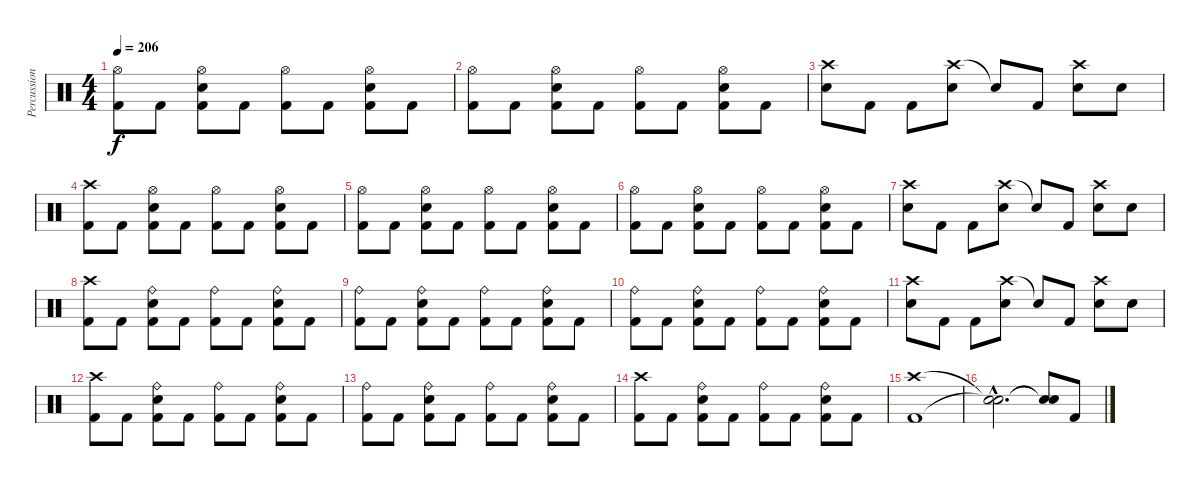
\track ("Percussion" "Percussion") {instrument percussion}
\staff {score}
\articulation defaults
\ts (4 4)
\tempo 206
\clef neutral
\ks c
("Hi-Hat (open)" "Kick (hit) 2").8{dy f} "Kick (hit) 2".8 ("Hi-Hat (open)" "Snare (hit) 2" "Kick (hit) 2").8 "Kick (hit) 2".8 ("Hi-Hat (open)" "Kick (hit) 2").8 "Kick (hit) 2".8 ("Hi-Hat (open)" "Snare (hit) 2" "Kick (hit) 2").8 "Kick (hit) 2".8 |
("Hi-Hat (open)" "Kick (hit) 2").8 "Kick (hit) 2".8 ("Hi-Hat (open)" "Snare (hit) 2" "Kick (hit) 2").8 "Kick (hit) 2".8 ("Hi-Hat (open)" "Kick (hit) 2").8 "Kick (hit) 2".8 ("Hi-Hat (open)" "Snare (hit) 2" "Kick (hit) 2").8 "Kick (hit) 2".8 |
("Crash high (hit)" "Snare (hit) 2").8 "Kick (hit) 2".8 "Kick (hit) 2".8 ("Crash high (hit)" "Snare (hit) 2").8 "Snare (hit)"{t}.8 "Kick (hit) 2".8 ("Crash high (hit)" "Snare (hit) 2").8 "Snare (hit) 2".8 |
("Crash high (hit)" "Kick (hit) 2").8 "Kick (hit) 2".8 ("Hi-Hat (open)" "Snare (hit) 2" "Kick (hit) 2").8 "Kick (hit) 2".8 ("Hi-Hat (open)" "Kick (hit) 2").8 "Kick (hit) 2".8 ("Hi-Hat (open)" "Snare (hit) 2" "Kick (hit) 2").8 "Kick (hit) 2".8 |
("Hi-Hat (open)" "Kick (hit) 2").8 "Kick (hit) 2".8 ("Hi-Hat (open)" "Snare (hit) 2" "Kick (hit) 2").8 "Kick (hit) 2".8 ("Hi-Hat (open)" "Kick (hit) 2").8 "Kick (hit) 2".8 ("Hi-Hat (open)" "Snare (hit) 2" "Kick (hit) 2").8 "Kick (hit) 2".8 |
("Hi-Hat (open)" "Kick (hit) 2").8 "Kick (hit) 2".8 ("Hi-Hat (open)" "Snare (hit) 2" "Kick (hit) 2").8 "Kick (hit) 2".8 ("Hi-Hat (open)" "Kick (hit) 2").8 "Kick (hit) 2".8 ("Hi-Hat (open)" "Snare (hit) 2" "Kick (hit) 2").8 "Kick (hit) 2".8 |
("Crash high (hit)" "Snare (hit) 2").8 "Kick (hit) 2".8 "Kick (hit) 2".8 ("Crash high (hit)" "Snare (hit) 2").8 "Snare (hit)"{t}.8 "Kick (hit) 2".8 ("Crash high (hit)" "Snare (hit) 2").8 "Snare (hit) 2".8 |
("Crash high (hit)" "Kick (hit) 2").8 "Kick (hit) 2".8 ("Ride (bell)" "Snare (hit) 2" "Kick (hit) 2").8 "Kick (hit) 2".8 ("Ride (bell)" "Kick (hit) 2").8 "Kick (hit) 2".8 ("Ride (bell)" "Snare (hit) 2" "Kick (hit) 2").8 "Kick (hit) 2".8 |
("Ride (bell)" "Kick (hit) 2").8 "Kick (hit) 2".8 ("Ride (bell)" "Snare (hit) 2" "Kick (hit) 2").8 "Kick (hit) 2".8 ("Ride (bell)" "Kick (hit) 2").8 "Kick (hit) 2".8 ("Ride (bell)" "Snare (hit) 2" "Kick (hit) 2").8 "Kick (hit) 2".8 |
("Ride (bell)" "Kick (hit) 2").8 "Kick (hit) 2".8 ("Ride (bell)" "Snare (hit) 2" "Kick (hit) 2").8 "Kick (hit) 2".8 ("Ride (bell)" "Kick (hit) 2").8 "Kick (hit) 2".8 ("Ride (bell)" "Snare (hit) 2" "Kick (hit) 2").8 "Kick (hit) 2".8 |
("Crash high (hit)" "Snare (hit) 2").8 "Kick (hit) 2".8 "Kick (hit) 2".8 ("Crash high (hit)" "Snare (hit) 2").8 "Snare (hit)"{t}.8 "Kick (hit) 2".8 ("Crash high (hit)" "Snare (hit) 2").8 "Snare (hit) 2".8 |
("Crash high (hit)" "Kick (hit) 2").8 "Kick (hit) 2".8 ("Ride (bell)" "Snare (hit) 2" "Kick (hit) 2").8 "Kick (hit) 2".8 ("Ride (bell)" "Kick (hit) 2").8 "Kick (hit) 2".8 ("Ride (bell)" "Snare (hit) 2" "Kick (hit) 2").8 "Kick (hit) 2".8 |
("Ride (bell)" "Kick (hit) 2").8 "Kick (hit) 2".8 ("Ride (bell)" "Snare (hit) 2" "Kick (hit) 2").8 "Kick (hit) 2".8 ("Ride (bell)" "Kick (hit) 2").8 "Kick (hit) 2".8 ("Ride (bell)" "Snare (hit) 2" "Kick (hit) 2").8 "Kick (hit) 2".8 |
("Crash high (hit)" "Kick (hit) 2").8 "Kick (hit) 2".8 ("Ride (bell)" "Snare (hit) 2" "Kick (hit) 2").8 "Kick (hit) 2".8 ("Ride (bell)" "Kick (hit) 2").8 "Kick (hit) 2".8 ("Ride (bell)" "Snare (hit) 2" "Kick (hit) 2").8 "Kick (hit) 2".8 |
("Crash high (hit)" "Kick (hit) 2").1 |
("Snare (hit)"{hac t} "Snare (hit)"{hac t}).2{d} ("Snare (hit)"{t} "Snare (hit)"{t}).8 "Kick (hit) 2".8
